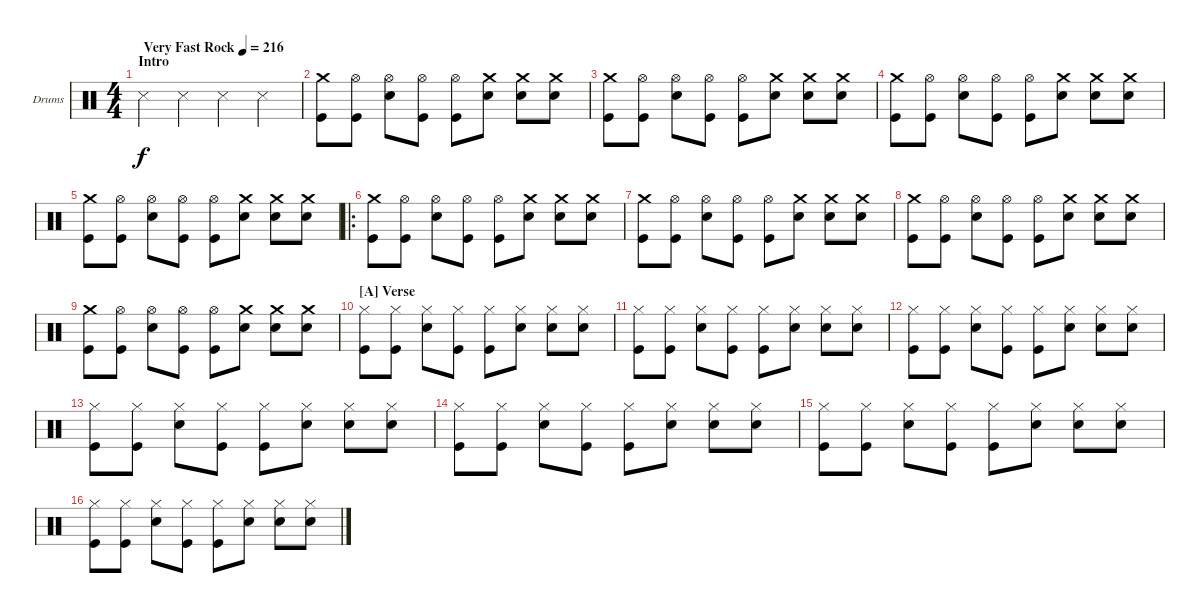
\defaultSystemsLayout 4
\bracketExtendMode groupsimilarinstruments
\firstSystemTrackNameOrientation horizontal
\otherSystemsTrackNameOrientation horizontal
\track ("Drumkit" "Drums") {instrument percussion}
\staff {score}
\articulation defaults
\ts (4 4)
\section ("" "Intro")
\tempo (216 "Very Fast Rock")
\clef neutral
\ks c "Snare (side stick) 3".4{dy f} "Snare (side stick) 3".4 "Snare (side stick) 3".4 "Snare (side stick) 3".4
|
("Crash medium (hit)" "Kick (hit)").8 ("Hi-Hat (open)" "Kick (hit)").8 ("Hi-Hat (open)" "Snare (hit) 2").8 ("Hi-Hat (open)" "Kick (hit)").8 ("Hi-Hat (open)" "Kick (hit)").8 ("Crash medium (hit)" "Snare (hit) 2").8 ("Crash medium (hit)" "Snare (hit) 2").8 ("Crash medium (hit)" "Snare (hit) 2").8 |
("Crash medium (hit)" "Kick (hit)").8 ("Hi-Hat (open)" "Kick (hit)").8 ("Hi-Hat (open)" "Snare (hit) 2").8 ("Hi-Hat (open)" "Kick (hit)").8 ("Hi-Hat (open)" "Kick (hit)").8 ("Crash medium (hit)" "Snare (hit) 2").8 ("Crash medium (hit)" "Snare (hit) 2").8 ("Crash medium (hit)" "Snare (hit) 2").8 |
("Crash medium (hit)" "Kick (hit)").8 ("Hi-Hat (open)" "Kick (hit)").8 ("Hi-Hat (open)" "Snare (hit) 2").8 ("Hi-Hat (open)" "Kick (hit)").8 ("Hi-Hat (open)" "Kick (hit)").8 ("Crash medium (hit)" "Snare (hit) 2").8 ("Crash medium (hit)" "Snare (hit) 2").8 ("Crash medium (hit)" "Snare (hit) 2").8 |
("Crash medium (hit)" "Kick (hit)").8 ("Hi-Hat (open)" "Kick (hit)").8 ("Hi-Hat (open)" "Snare (hit) 2").8 ("Hi-Hat (open)" "Kick (hit)").8 ("Hi-Hat (open)" "Kick (hit)").8 ("Crash medium (hit)" "Snare (hit) 2").8 ("Crash medium (hit)" "Snare (hit) 2").8 ("Crash medium (hit)" "Snare (hit) 2").8 |
\ro
("Crash medium (hit)" "Kick (hit)").8 ("Hi-Hat (open)" "Kick (hit)").8 ("Hi-Hat (open)" "Snare (hit) 2").8 ("Hi-Hat (open)" "Kick (hit)").8 ("Hi-Hat (open)" "Kick (hit)").8 ("Crash medium (hit)" "Snare (hit) 2").8 ("Crash medium (hit)" "Snare (hit) 2").8 ("Crash medium (hit)" "Snare (hit) 2").8 |
("Crash medium (hit)" "Kick (hit)").8 ("Hi-Hat (open)" "Kick (hit)").8 ("Hi-Hat (open)" "Snare (hit) 2").8 ("Hi-Hat (open)" "Kick (hit)").8 ("Hi-Hat (open)" "Kick (hit)").8 ("Crash medium (hit)" "Snare (hit) 2").8 ("Crash medium (hit)" "Snare (hit) 2").8 ("Crash medium (hit)" "Snare (hit) 2").8 |
("Crash medium (hit)" "Kick (hit)").8 ("Hi-Hat (open)" "Kick (hit)").8 ("Hi-Hat (open)" "Snare (hit) 2").8 ("Hi-Hat (open)" "Kick (hit)").8 ("Hi-Hat (open)" "Kick (hit)").8 ("Crash medium (hit)" "Snare (hit) 2").8 ("Crash medium (hit)" "Snare (hit) 2").8 ("Crash medium (hit)" "Snare (hit) 2").8 |
("Crash medium (hit)" "Kick (hit)").8 ("Hi-Hat (open)" "Kick (hit)").8 ("Hi-Hat (open)" "Snare (hit) 2").8 ("Hi-Hat (open)" "Kick (hit)").8 ("Hi-Hat (open)" "Kick (hit)").8 ("Crash medium (hit)" "Snare (hit) 2").8 ("Crash medium (hit)" "Snare (hit) 2").8 ("Crash medium (hit)" "Snare (hit) 2").8 |
\section ("A" "Verse")
("Hi-Hat (closed)" "Kick (hit)").8 ("Hi-Hat (closed)" "Kick (hit)").8 ("Hi-Hat (closed)" "Snare (hit) 2").8 ("Hi-Hat (closed)" "Kick (hit)").8 ("Hi-Hat (closed)" "Kick (hit)").8 ("Hi-Hat (closed)" "Snare (hit) 2").8 ("Hi-Hat (closed)" "Snare (hit) 2").8 ("Hi-Hat (closed)" "Snare (hit) 2").8 |
("Hi-Hat (closed)" "Kick (hit)").8 ("Hi-Hat (closed)" "Kick (hit)").8 ("Hi-Hat (closed)" "Snare (hit) 2").8 ("Hi-Hat (closed)" "Kick (hit)").8 ("Hi-Hat (closed)" "Kick (hit)").8 ("Hi-Hat (closed)" "Snare (hit) 2").8 ("Hi-Hat (closed)" "Snare (hit) 2").8 ("Hi-Hat (closed)" "Snare (hit) 2").8 |
("Hi-Hat (closed)" "Kick (hit)").8 ("Hi-Hat (closed)" "Kick (hit)").8 ("Hi-Hat (closed)" "Snare (hit) 2").8 ("Hi-Hat (closed)" "Kick (hit)").8 ("Hi-Hat (closed)" "Kick (hit)").8 ("Hi-Hat (closed)" "Snare (hit) 2").8 ("Hi-Hat (closed)" "Snare (hit) 2").8 ("Hi-Hat (closed)" "Snare (hit) 2").8 |
("Hi-Hat (closed)" "Kick (hit)").8 ("Hi-Hat (closed)" "Kick (hit)").8 ("Hi-Hat (closed)" "Snare (hit) 2").8 ("Hi-Hat (closed)" "Kick (hit)").8 ("Hi-Hat (closed)" "Kick (hit)").8 ("Hi-Hat (closed)" "Snare (hit) 2").8 ("Hi-Hat (closed)" "Snare (hit) 2").8 ("Hi-Hat (closed)" "Snare (hit) 2").8 |
("Hi-Hat (closed)" "Kick (hit)").8 ("Hi-Hat (closed)" "Kick (hit)").8 ("Hi-Hat (closed)" "Snare (hit) 2").8 ("Hi-Hat (closed)" "Kick (hit)").8 ("Hi-Hat (closed)" "Kick (hit)").8 ("Hi-Hat (closed)" "Snare (hit) 2").8 ("Hi-Hat (closed)" "Snare (hit) 2").8 ("Hi-Hat (closed)" "Snare (hit) 2").8 |
("Hi-Hat (closed)" "Kick (hit)").8 ("Hi-Hat (closed)" "Kick (hit)").8 ("Hi-Hat (closed)" "Snare (hit) 2").8 ("Hi-Hat (closed)" "Kick (hit)").8 ("Hi-Hat (closed)" "Kick (hit)").8 ("Hi-Hat (closed)" "Snare (hit) 2").8 ("Hi-Hat (closed)" "Snare (hit) 2").8 ("Hi-Hat (closed)" "Snare (hit) 2").8 |
("Hi-Hat (closed)" "Kick (hit)").8 ("Hi-Hat (closed)" "Kick (hit)").8 ("Hi-Hat (closed)" "Snare (hit) 2").8 ("Hi-Hat (closed)" "Kick (hit)").8 ("Hi-Hat (closed)" "Kick (hit)").8 ("Hi-Hat (closed)" "Snare (hit) 2").8 ("Hi-Hat (closed)" "Snare (hit) 2").8 ("Hi-Hat (closed)" "Snare (hit) 2").8
